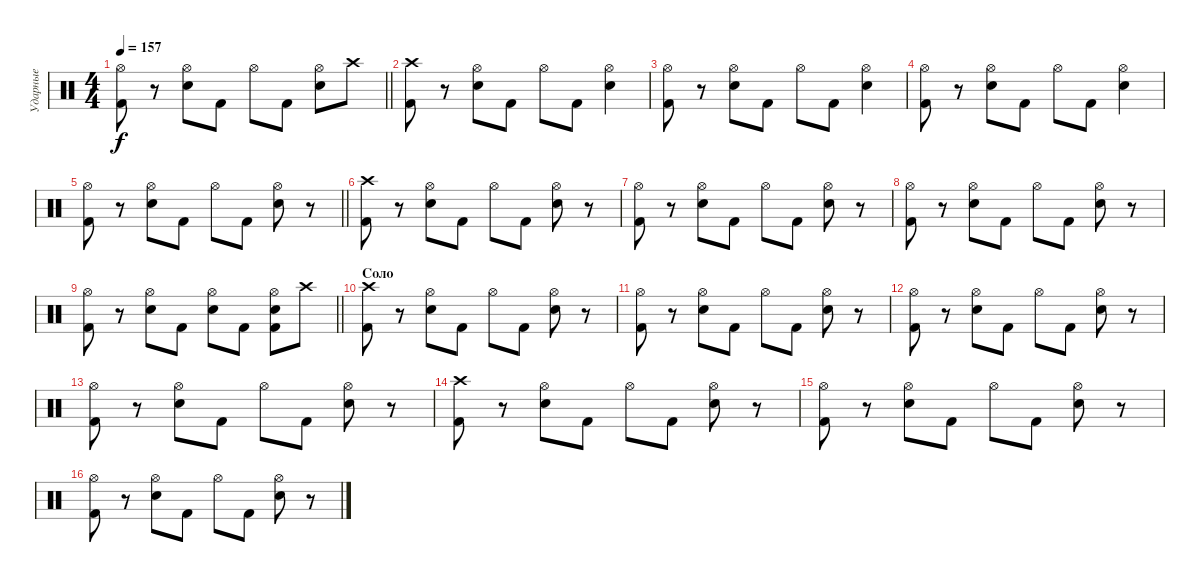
\track ("Ударные" "Ударные") {instrument percussion}
\staff {score}
\articulation defaults
\ts (4 4)
\tempo 157
\clef neutral
\barLineRight lightlight
\ks c
("Hi-Hat (open)" "Kick (hit) 2").8{dy f} r.8 ("Hi-Hat (open)" "Snare (hit) 2").8 "Kick (hit) 2".8 "Hi-Hat (open)".8 "Kick (hit) 2".8 ("Hi-Hat (open)" "Snare (hit) 2").8 "Crash high (hit)".8 |
("Crash high (hit)" "Kick (hit) 2").8 r.8 ("Hi-Hat (open)" "Snare (hit) 2").8 "Kick (hit) 2".8 "Hi-Hat (open)".8 "Kick (hit) 2".8 ("Hi-Hat (open)" "Snare (hit) 2").4 |
("Hi-Hat (open)" "Kick (hit) 2").8 r.8 ("Hi-Hat (open)" "Snare (hit) 2").8 "Kick (hit) 2".8 "Hi-Hat (open)".8 "Kick (hit) 2".8 ("Hi-Hat (open)" "Snare (hit) 2").4 |
("Hi-Hat (open)" "Kick (hit) 2").8 r.8 ("Hi-Hat (open)" "Snare (hit) 2").8 "Kick (hit) 2".8 "Hi-Hat (open)".8 "Kick (hit) 2".8 ("Hi-Hat (open)" "Snare (hit) 2").4 |
\barLineRight lightlight
("Hi-Hat (open)" "Kick (hit) 2").8 r.8 ("Hi-Hat (open)" "Snare (hit) 2").8 "Kick (hit) 2".8 "Hi-Hat (open)".8 "Kick (hit) 2".8 ("Hi-Hat (open)" "Snare (hit) 2").8 r.8 |
("Crash high (hit)" "Kick (hit) 2").8 r.8 ("Hi-Hat (open)" "Snare (hit) 2").8 "Kick (hit) 2".8 "Hi-Hat (open)".8 "Kick (hit) 2".8 ("Hi-Hat (open)" "Snare (hit) 2").8 r.8 |
("Hi-Hat (open)" "Kick (hit) 2").8 r.8 ("Hi-Hat (open)" "Snare (hit) 2").8 "Kick (hit) 2".8 "Hi-Hat (open)".8 "Kick (hit) 2".8 ("Hi-Hat (open)" "Snare (hit) 2").8 r.8 |
("Hi-Hat (open)" "Kick (hit) 2").8 r.8 ("Hi-Hat (open)" "Snare (hit) 2").8 "Kick (hit) 2".8 "Hi-Hat (open)".8 "Kick (hit) 2".8 ("Hi-Hat (open)" "Snare (hit) 2").8 r.8 |
\barLineRight lightlight
("Hi-Hat (open)" "Kick (hit) 2").8 r.8 ("Hi-Hat (open)" "Snare (hit) 2").8 "Kick (hit) 2".8 ("Hi-Hat (open)" "Snare (hit) 2").8 "Kick (hit) 2".8 ("Hi-Hat (open)" "Snare (hit) 2" "Kick (hit) 2").8 "Crash high (hit)".8 |
\section ("" "Соло")
("Crash high (hit)" "Kick (hit) 2").8 r.8 ("Hi-Hat (open)" "Snare (hit) 2").8 "Kick (hit) 2".8 "Hi-Hat (open)".8 "Kick (hit) 2".8 ("Hi-Hat (open)" "Snare (hit) 2").8 r.8 |
("Hi-Hat (open)" "Kick (hit) 2").8 r.8 ("Hi-Hat (open)" "Snare (hit) 2").8 "Kick (hit) 2".8 "Hi-Hat (open)".8 "Kick (hit) 2".8 ("Hi-Hat (open)" "Snare (hit) 2").8 r.8 |
("Hi-Hat (open)" "Kick (hit) 2").8 r.8 ("Hi-Hat (open)" "Snare (hit) 2").8 "Kick (hit) 2".8 "Hi-Hat (open)".8 "Kick (hit) 2".8 ("Hi-Hat (open)" "Snare (hit) 2").8 r.8 |
("Hi-Hat (open)" "Kick (hit) 2").8 r.8 ("Hi-Hat (open)" "Snare (hit) 2").8 "Kick (hit) 2".8 "Hi-Hat (open)".8 "Kick (hit) 2".8 ("Hi-Hat (open)" "Snare (hit) 2").8 r.8 |
("Crash high (hit)" "Kick (hit) 2").8 r.8 ("Hi-Hat (open)" "Snare (hit) 2").8 "Kick (hit) 2".8 "Hi-Hat (open)".8 "Kick (hit) 2".8 ("Hi-Hat (open)" "Snare (hit) 2").8 r.8 |
("Hi-Hat (open)" "Kick (hit) 2").8 r.8 ("Hi-Hat (open)" "Snare (hit) 2").8 "Kick (hit) 2".8 "Hi-Hat (open)".8 "Kick (hit) 2".8 ("Hi-Hat (open)" "Snare (hit) 2").8 r.8 |
("Hi-Hat (open)" "Kick (hit) 2").8 r.8 ("Hi-Hat (open)" "Snare (hit) 2").8 "Kick (hit) 2".8 "Hi-Hat (open)".8 "Kick (hit) 2".8 ("Hi-Hat (open)" "Snare (hit) 2").8 r.8
